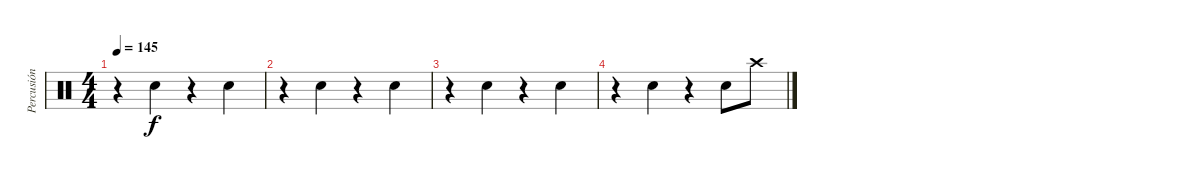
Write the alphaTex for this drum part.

\track ("Percusión" "Percusión") {instrument percussion}
\staff {score}
\articulation defaults
\ts (4 4)
\tempo 145
\clef neutral
\ks c
r.4{dy f} "Snare (hit) 2".4 r.4 "Snare (hit) 2".4 |
r.4 "Snare (hit) 2".4 r.4 "Snare (hit) 2".4 |
r.4 "Snare (hit) 2".4 r.4 "Snare (hit) 2".4 |
r.4 "Snare (hit) 2".4 r.4 "Snare (hit) 2".8 "Crash high (hit)".8
